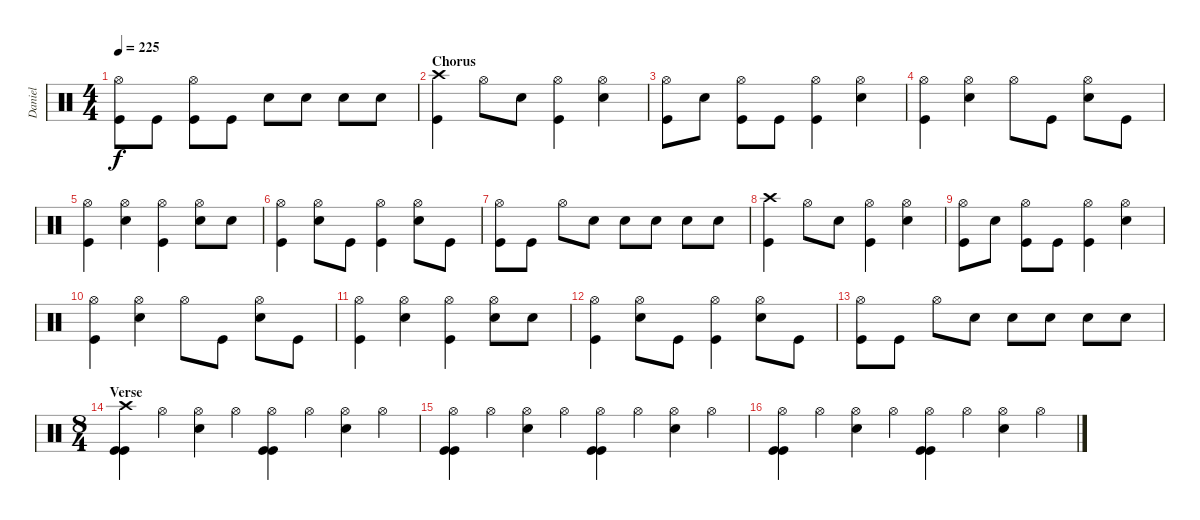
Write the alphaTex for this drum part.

\track ("Daniel" "Daniel") {instrument percussion}
\staff {score}
\articulation defaults
\ts (4 4)
\tempo 225
\clef neutral
\ks c
("Hi-Hat (open)" "Kick (hit)").8{dy f} "Kick (hit)".8 ("Hi-Hat (open)" "Kick (hit)").8 "Kick (hit)".8 "Snare (hit) 2".8 "Snare (hit) 2".8 "Snare (hit) 2".8 "Snare (hit) 2".8 |
\section ("" "Chorus")
("Crash high (hit)" "Kick (hit)").4 "Hi-Hat (open)".8 "Snare (hit) 2".8 ("Hi-Hat (open)" "Kick (hit)").4 ("Hi-Hat (open)" "Snare (hit) 2").4 |
("Hi-Hat (open)" "Kick (hit)").8 "Snare (hit) 2".8 ("Hi-Hat (open)" "Kick (hit)").8 "Kick (hit)".8 ("Hi-Hat (open)" "Kick (hit)").4 ("Hi-Hat (open)" "Snare (hit) 2").4 |
("Hi-Hat (open)" "Kick (hit)").4 ("Hi-Hat (open)" "Snare (hit) 2").4 "Hi-Hat (open)".8 "Kick (hit)".8 ("Hi-Hat (open)" "Snare (hit) 2").8 "Kick (hit)".8 |
("Hi-Hat (open)" "Kick (hit)").4 ("Hi-Hat (open)" "Snare (hit) 2").4 ("Hi-Hat (open)" "Kick (hit)").4 ("Hi-Hat (open)" "Snare (hit) 2").8 "Snare (hit) 2".8 |
("Hi-Hat (open)" "Kick (hit)").4 ("Hi-Hat (open)" "Snare (hit) 2").8 "Kick (hit)".8 ("Hi-Hat (open)" "Kick (hit)").4 ("Hi-Hat (open)" "Snare (hit) 2").8 "Kick (hit)".8 |
("Hi-Hat (open)" "Kick (hit)").8 "Kick (hit)".8 "Hi-Hat (open)".8 "Snare (hit) 2".8 "Snare (hit) 2".8 "Snare (hit) 2".8 "Snare (hit) 2".8 "Snare (hit) 2".8 |
("Crash high (hit)" "Kick (hit)").4 "Hi-Hat (open)".8 "Snare (hit) 2".8 ("Hi-Hat (open)" "Kick (hit)").4 ("Hi-Hat (open)" "Snare (hit) 2").4 |
("Hi-Hat (open)" "Kick (hit)").8 "Snare (hit) 2".8 ("Hi-Hat (open)" "Kick (hit)").8 "Kick (hit)".8 ("Hi-Hat (open)" "Kick (hit)").4 ("Hi-Hat (open)" "Snare (hit) 2").4 |
("Hi-Hat (open)" "Kick (hit)").4 ("Hi-Hat (open)" "Snare (hit) 2").4 "Hi-Hat (open)".8 "Kick (hit)".8 ("Hi-Hat (open)" "Snare (hit) 2").8 "Kick (hit)".8 |
("Hi-Hat (open)" "Kick (hit)").4 ("Hi-Hat (open)" "Snare (hit) 2").4 ("Hi-Hat (open)" "Kick (hit)").4 ("Hi-Hat (open)" "Snare (hit) 2").8 "Snare (hit) 2".8 |
("Hi-Hat (open)" "Kick (hit)").4 ("Hi-Hat (open)" "Snare (hit) 2").8 "Kick (hit)".8 ("Hi-Hat (open)" "Kick (hit)").4 ("Hi-Hat (open)" "Snare (hit) 2").8 "Kick (hit)".8 |
("Hi-Hat (open)" "Kick (hit)").8 "Kick (hit)".8 "Hi-Hat (open)".8 "Snare (hit) 2".8 "Snare (hit) 2".8 "Snare (hit) 2".8 "Snare (hit) 2".8 "Snare (hit) 2".8 |
\ts (8 4)
\section ("" "Verse")
("Crash high (hit)" "Kick (hit)" "Kick (hit)").4 "Hi-Hat (open)".4 ("Hi-Hat (open)" "Snare (hit) 2").4 "Hi-Hat (open)".4 ("Hi-Hat (open)" "Kick (hit)" "Kick (hit)").4 "Hi-Hat (open)".4 ("Hi-Hat (open)" "Snare (hit) 2").4 "Hi-Hat (open)".4 |
("Hi-Hat (open)" "Kick (hit)" "Kick (hit)").4 "Hi-Hat (open)".4 ("Hi-Hat (open)" "Snare (hit) 2").4 "Hi-Hat (open)".4 ("Hi-Hat (open)" "Kick (hit)" "Kick (hit)").4 "Hi-Hat (open)".4 ("Hi-Hat (open)" "Snare (hit) 2").4 "Hi-Hat (open)".4 |
("Hi-Hat (open)" "Kick (hit)" "Kick (hit)").4 "Hi-Hat (open)".4 ("Hi-Hat (open)" "Snare (hit) 2").4 "Hi-Hat (open)".4 ("Hi-Hat (open)" "Kick (hit)" "Kick (hit)").4 "Hi-Hat (open)".4 ("Hi-Hat (open)" "Snare (hit) 2").4 "Hi-Hat (open)".4
